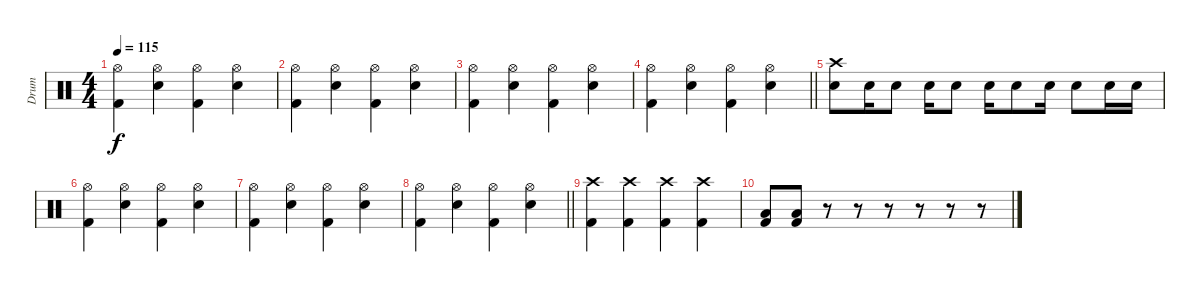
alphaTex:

\track ("Drum" "Drum") {instrument percussion}
\staff {score}
\articulation defaults
\ts (4 4)
\tempo 115
\clef neutral
\ks c
("Kick (hit) 2" "Hi-Hat (open)").4{dy f} ("Snare (hit) 2" "Hi-Hat (open)").4 ("Kick (hit) 2" "Hi-Hat (open)").4 ("Snare (hit) 2" "Hi-Hat (open)").4 |
("Kick (hit) 2" "Hi-Hat (open)").4 ("Snare (hit) 2" "Hi-Hat (open)").4 ("Kick (hit) 2" "Hi-Hat (open)").4 ("Snare (hit) 2" "Hi-Hat (open)").4 |
("Kick (hit) 2" "Hi-Hat (open)").4 ("Snare (hit) 2" "Hi-Hat (open)").4 ("Kick (hit) 2" "Hi-Hat (open)").4 ("Snare (hit) 2" "Hi-Hat (open)").4 |
\barLineRight lightlight
("Kick (hit) 2" "Hi-Hat (open)").4 ("Snare (hit) 2" "Hi-Hat (open)").4 ("Kick (hit) 2" "Hi-Hat (open)").4 ("Snare (hit) 2" "Hi-Hat (open)").4 |
("Snare (hit) 2" "Crash high (hit)").8 "Snare (hit) 2".16 "Snare (hit) 2".8 "Snare (hit) 2".16 "Snare (hit) 2".8 "Snare (hit) 2".16 "Snare (hit) 2".8 "Snare (hit) 2".16 "Snare (hit) 2".8 "Snare (hit) 2".16 "Snare (hit) 2".16 |
("Kick (hit) 2" "Hi-Hat (open)").4 ("Snare (hit) 2" "Hi-Hat (open)").4 ("Kick (hit) 2" "Hi-Hat (open)").4 ("Snare (hit) 2" "Hi-Hat (open)").4 |
("Kick (hit) 2" "Hi-Hat (open)").4 ("Snare (hit) 2" "Hi-Hat (open)").4 ("Kick (hit) 2" "Hi-Hat (open)").4 ("Snare (hit) 2" "Hi-Hat (open)").4 |
\barLineRight lightlight
("Kick (hit) 2" "Hi-Hat (open)").4 ("Snare (hit) 2" "Hi-Hat (open)").4 ("Kick (hit) 2" "Hi-Hat (open)").4 ("Snare (hit) 2" "Hi-Hat (open)").4 |
("Kick (hit) 2" "Crash high (hit)").4 ("Kick (hit) 2" "Crash high (hit)").4 ("Kick (hit) 2" "Crash high (hit)").4 ("Kick (hit) 2" "Crash high (hit)").4 |
("Kick (hit) 2" "Low Floor Tom (hit)").8 ("Kick (hit) 2" "Low Floor Tom (hit)").8 r.8 r.8 r.8 r.8 r.8 r.8
